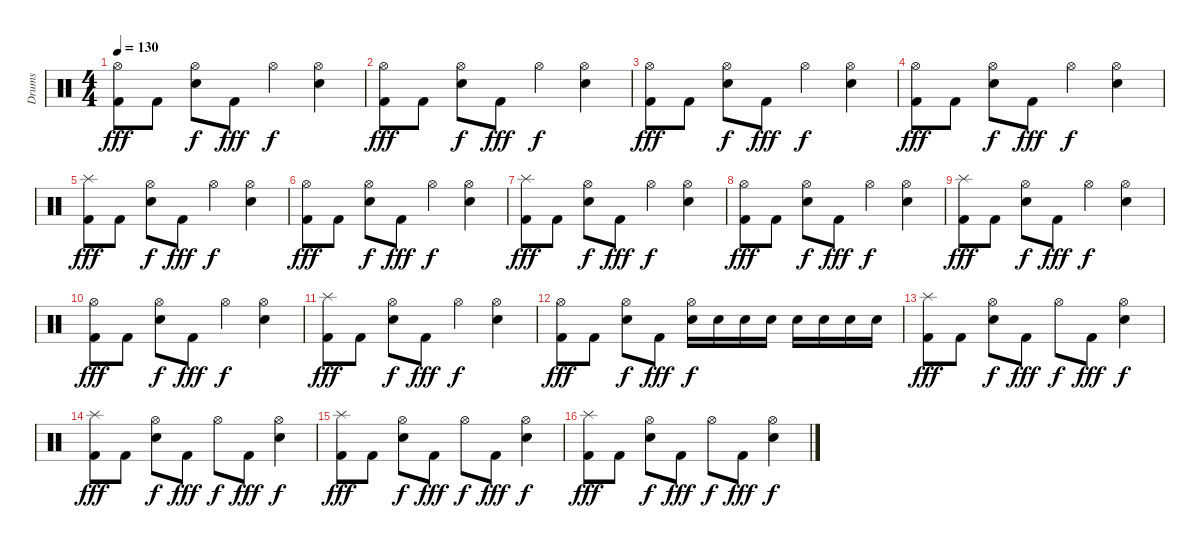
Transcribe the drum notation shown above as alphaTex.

\track ("Drums" "Drums") {instrument percussion}
\staff {score}
\articulation defaults
\ts (4 4)
\tempo 130
\clef neutral
\ks c
("Hi-Hat (open)" "Kick (hit) 2").8{dy fff} "Kick (hit) 2".8 ("Hi-Hat (open)" "Snare (hit) 2").8{dy f} "Kick (hit) 2".8{dy fff} "Hi-Hat (open)".4{dy f} ("Hi-Hat (open)" "Snare (hit) 2").4 |
("Hi-Hat (open)" "Kick (hit) 2").8{dy fff} "Kick (hit) 2".8 ("Hi-Hat (open)" "Snare (hit) 2").8{dy f} "Kick (hit) 2".8{dy fff} "Hi-Hat (open)".4{dy f} ("Hi-Hat (open)" "Snare (hit) 2").4 |
("Hi-Hat (open)" "Kick (hit) 2").8{dy fff} "Kick (hit) 2".8 ("Hi-Hat (open)" "Snare (hit) 2").8{dy f} "Kick (hit) 2".8{dy fff} "Hi-Hat (open)".4{dy f} ("Hi-Hat (open)" "Snare (hit) 2").4 |
("Hi-Hat (open)" "Kick (hit) 2").8{dy fff} "Kick (hit) 2".8 ("Hi-Hat (open)" "Snare (hit) 2").8{dy f} "Kick (hit) 2".8{dy fff} "Hi-Hat (open)".4{dy f} ("Hi-Hat (open)" "Snare (hit) 2").4 |
("Splash (hit)" "Kick (hit) 2").8{dy fff} "Kick (hit) 2".8 ("Hi-Hat (open)" "Snare (hit) 2").8{dy f} "Kick (hit) 2".8{dy fff} "Hi-Hat (open)".4{dy f} ("Hi-Hat (open)" "Snare (hit) 2").4 |
("Hi-Hat (open)" "Kick (hit) 2").8{dy fff} "Kick (hit) 2".8 ("Hi-Hat (open)" "Snare (hit) 2").8{dy f} "Kick (hit) 2".8{dy fff} "Hi-Hat (open)".4{dy f} ("Hi-Hat (open)" "Snare (hit) 2").4 |
("Splash (hit)" "Kick (hit) 2").8{dy fff} "Kick (hit) 2".8 ("Hi-Hat (open)" "Snare (hit) 2").8{dy f} "Kick (hit) 2".8{dy fff} "Hi-Hat (open)".4{dy f} ("Hi-Hat (open)" "Snare (hit) 2").4 |
("Hi-Hat (open)" "Kick (hit) 2").8{dy fff} "Kick (hit) 2".8 ("Hi-Hat (open)" "Snare (hit) 2").8{dy f} "Kick (hit) 2".8{dy fff} "Hi-Hat (open)".4{dy f} ("Hi-Hat (open)" "Snare (hit) 2").4 |
("Splash (hit)" "Kick (hit) 2").8{dy fff} "Kick (hit) 2".8 ("Hi-Hat (open)" "Snare (hit) 2").8{dy f} "Kick (hit) 2".8{dy fff} "Hi-Hat (open)".4{dy f} ("Hi-Hat (open)" "Snare (hit) 2").4 |
("Hi-Hat (open)" "Kick (hit) 2").8{dy fff} "Kick (hit) 2".8 ("Hi-Hat (open)" "Snare (hit) 2").8{dy f} "Kick (hit) 2".8{dy fff} "Hi-Hat (open)".4{dy f} ("Hi-Hat (open)" "Snare (hit) 2").4 |
("Splash (hit)" "Kick (hit) 2").8{dy fff} "Kick (hit) 2".8 ("Hi-Hat (open)" "Snare (hit) 2").8{dy f} "Kick (hit) 2".8{dy fff} "Hi-Hat (open)".4{dy f} ("Hi-Hat (open)" "Snare (hit) 2").4 |
("Hi-Hat (open)" "Kick (hit) 2").8{dy fff} "Kick (hit) 2".8 ("Hi-Hat (open)" "Snare (hit) 2").8{dy f} "Kick (hit) 2".8{dy fff} ("Hi-Hat (open)" "Snare (hit) 2").16{dy f} "Snare (hit) 2".16 "Snare (hit) 2".16 "Snare (hit) 2".16 "Snare (hit) 2".16 "Snare (hit) 2".16 "Snare (hit) 2".16 "Snare (hit) 2".16 |
("Splash (hit)" "Kick (hit) 2").8{dy fff} "Kick (hit) 2".8 ("Hi-Hat (open)" "Snare (hit) 2").8{dy f} "Kick (hit) 2".8{dy fff} "Hi-Hat (open)".8{dy f} "Kick (hit) 2".8{dy fff} ("Hi-Hat (open)" "Snare (hit) 2").4{dy f} |
("Splash (hit)" "Kick (hit) 2").8{dy fff} "Kick (hit) 2".8 ("Hi-Hat (open)" "Snare (hit) 2").8{dy f} "Kick (hit) 2".8{dy fff} "Hi-Hat (open)".8{dy f} "Kick (hit) 2".8{dy fff} ("Hi-Hat (open)" "Snare (hit) 2").4{dy f} |
("Splash (hit)" "Kick (hit) 2").8{dy fff} "Kick (hit) 2".8 ("Hi-Hat (open)" "Snare (hit) 2").8{dy f} "Kick (hit) 2".8{dy fff} "Hi-Hat (open)".8{dy f} "Kick (hit) 2".8{dy fff} ("Hi-Hat (open)" "Snare (hit) 2").4{dy f} |
("Splash (hit)" "Kick (hit) 2").8{dy fff} "Kick (hit) 2".8 ("Hi-Hat (open)" "Snare (hit) 2").8{dy f} "Kick (hit) 2".8{dy fff} "Hi-Hat (open)".8{dy f} "Kick (hit) 2".8{dy fff} ("Hi-Hat (open)" "Snare (hit) 2").4{dy f}
